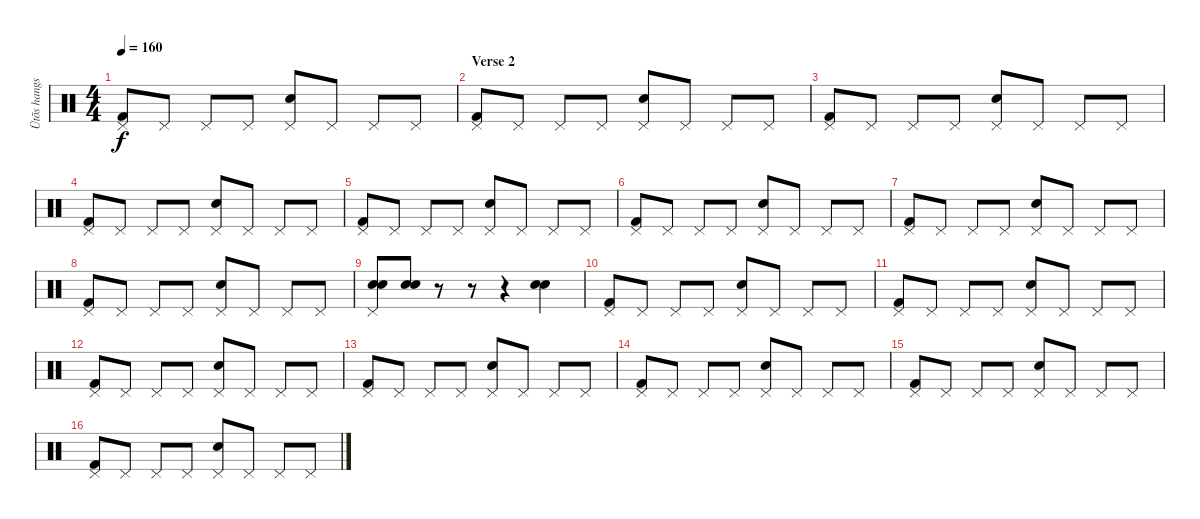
\track ("Ütõs hangszer" "Ütõs hangs") {instrument percussion}
\staff {score}
\articulation defaults
\ts (4 4)
\tempo 160
\clef neutral
\ks c
("Pedal Hi-Hat (hit)" "Kick (hit) 2").8{dy f} "Pedal Hi-Hat (hit)".8 "Pedal Hi-Hat (hit)".8 "Pedal Hi-Hat (hit)".8 ("Pedal Hi-Hat (hit)" "Snare (hit) 2").8 "Pedal Hi-Hat (hit)".8 "Pedal Hi-Hat (hit)".8 "Pedal Hi-Hat (hit)".8 |
\section ("" "Verse 2")
("Pedal Hi-Hat (hit)" "Kick (hit) 2").8 "Pedal Hi-Hat (hit)".8 "Pedal Hi-Hat (hit)".8 "Pedal Hi-Hat (hit)".8 ("Pedal Hi-Hat (hit)" "Snare (hit) 2").8 "Pedal Hi-Hat (hit)".8 "Pedal Hi-Hat (hit)".8 "Pedal Hi-Hat (hit)".8 |
("Pedal Hi-Hat (hit)" "Kick (hit) 2").8 "Pedal Hi-Hat (hit)".8 "Pedal Hi-Hat (hit)".8 "Pedal Hi-Hat (hit)".8 ("Pedal Hi-Hat (hit)" "Snare (hit) 2").8 "Pedal Hi-Hat (hit)".8 "Pedal Hi-Hat (hit)".8 "Pedal Hi-Hat (hit)".8 |
("Pedal Hi-Hat (hit)" "Kick (hit) 2").8 "Pedal Hi-Hat (hit)".8 "Pedal Hi-Hat (hit)".8 "Pedal Hi-Hat (hit)".8 ("Pedal Hi-Hat (hit)" "Snare (hit) 2").8 "Pedal Hi-Hat (hit)".8 "Pedal Hi-Hat (hit)".8 "Pedal Hi-Hat (hit)".8 |
("Pedal Hi-Hat (hit)" "Kick (hit) 2").8 "Pedal Hi-Hat (hit)".8 "Pedal Hi-Hat (hit)".8 "Pedal Hi-Hat (hit)".8 ("Pedal Hi-Hat (hit)" "Snare (hit) 2").8 "Pedal Hi-Hat (hit)".8 "Pedal Hi-Hat (hit)".8 "Pedal Hi-Hat (hit)".8 |
("Pedal Hi-Hat (hit)" "Kick (hit) 2").8 "Pedal Hi-Hat (hit)".8 "Pedal Hi-Hat (hit)".8 "Pedal Hi-Hat (hit)".8 ("Pedal Hi-Hat (hit)" "Snare (hit) 2").8 "Pedal Hi-Hat (hit)".8 "Pedal Hi-Hat (hit)".8 "Pedal Hi-Hat (hit)".8 |
("Pedal Hi-Hat (hit)" "Kick (hit) 2").8 "Pedal Hi-Hat (hit)".8 "Pedal Hi-Hat (hit)".8 "Pedal Hi-Hat (hit)".8 ("Pedal Hi-Hat (hit)" "Snare (hit) 2").8 "Pedal Hi-Hat (hit)".8 "Pedal Hi-Hat (hit)".8 "Pedal Hi-Hat (hit)".8 |
("Pedal Hi-Hat (hit)" "Kick (hit) 2").8 "Pedal Hi-Hat (hit)".8 "Pedal Hi-Hat (hit)".8 "Pedal Hi-Hat (hit)".8 ("Pedal Hi-Hat (hit)" "Snare (hit) 2").8 "Pedal Hi-Hat (hit)".8 "Pedal Hi-Hat (hit)".8 "Pedal Hi-Hat (hit)".8 |
("Pedal Hi-Hat (hit)" "Snare (hit) 2" "Electric Snare (hit)").8 ("Snare (hit) 2" "Electric Snare (hit)").8 r.8 r.8 r.4 ("Electric Snare (hit)" "Snare (hit) 2").4 |
("Pedal Hi-Hat (hit)" "Kick (hit) 2").8 "Pedal Hi-Hat (hit)".8 "Pedal Hi-Hat (hit)".8 "Pedal Hi-Hat (hit)".8 ("Pedal Hi-Hat (hit)" "Snare (hit) 2").8 "Pedal Hi-Hat (hit)".8 "Pedal Hi-Hat (hit)".8 "Pedal Hi-Hat (hit)".8 |
("Pedal Hi-Hat (hit)" "Kick (hit) 2").8 "Pedal Hi-Hat (hit)".8 "Pedal Hi-Hat (hit)".8 "Pedal Hi-Hat (hit)".8 ("Pedal Hi-Hat (hit)" "Snare (hit) 2").8 "Pedal Hi-Hat (hit)".8 "Pedal Hi-Hat (hit)".8 "Pedal Hi-Hat (hit)".8 |
("Pedal Hi-Hat (hit)" "Kick (hit) 2").8 "Pedal Hi-Hat (hit)".8 "Pedal Hi-Hat (hit)".8 "Pedal Hi-Hat (hit)".8 ("Pedal Hi-Hat (hit)" "Snare (hit) 2").8 "Pedal Hi-Hat (hit)".8 "Pedal Hi-Hat (hit)".8 "Pedal Hi-Hat (hit)".8 |
("Pedal Hi-Hat (hit)" "Kick (hit) 2").8 "Pedal Hi-Hat (hit)".8 "Pedal Hi-Hat (hit)".8 "Pedal Hi-Hat (hit)".8 ("Pedal Hi-Hat (hit)" "Snare (hit) 2").8 "Pedal Hi-Hat (hit)".8 "Pedal Hi-Hat (hit)".8 "Pedal Hi-Hat (hit)".8 |
("Pedal Hi-Hat (hit)" "Kick (hit) 2").8 "Pedal Hi-Hat (hit)".8 "Pedal Hi-Hat (hit)".8 "Pedal Hi-Hat (hit)".8 ("Pedal Hi-Hat (hit)" "Snare (hit) 2").8 "Pedal Hi-Hat (hit)".8 "Pedal Hi-Hat (hit)".8 "Pedal Hi-Hat (hit)".8 |
("Pedal Hi-Hat (hit)" "Kick (hit) 2").8 "Pedal Hi-Hat (hit)".8 "Pedal Hi-Hat (hit)".8 "Pedal Hi-Hat (hit)".8 ("Pedal Hi-Hat (hit)" "Snare (hit) 2").8 "Pedal Hi-Hat (hit)".8 "Pedal Hi-Hat (hit)".8 "Pedal Hi-Hat (hit)".8 |
("Pedal Hi-Hat (hit)" "Kick (hit) 2").8 "Pedal Hi-Hat (hit)".8 "Pedal Hi-Hat (hit)".8 "Pedal Hi-Hat (hit)".8 ("Pedal Hi-Hat (hit)" "Snare (hit) 2").8 "Pedal Hi-Hat (hit)".8 "Pedal Hi-Hat (hit)".8 "Pedal Hi-Hat (hit)".8
